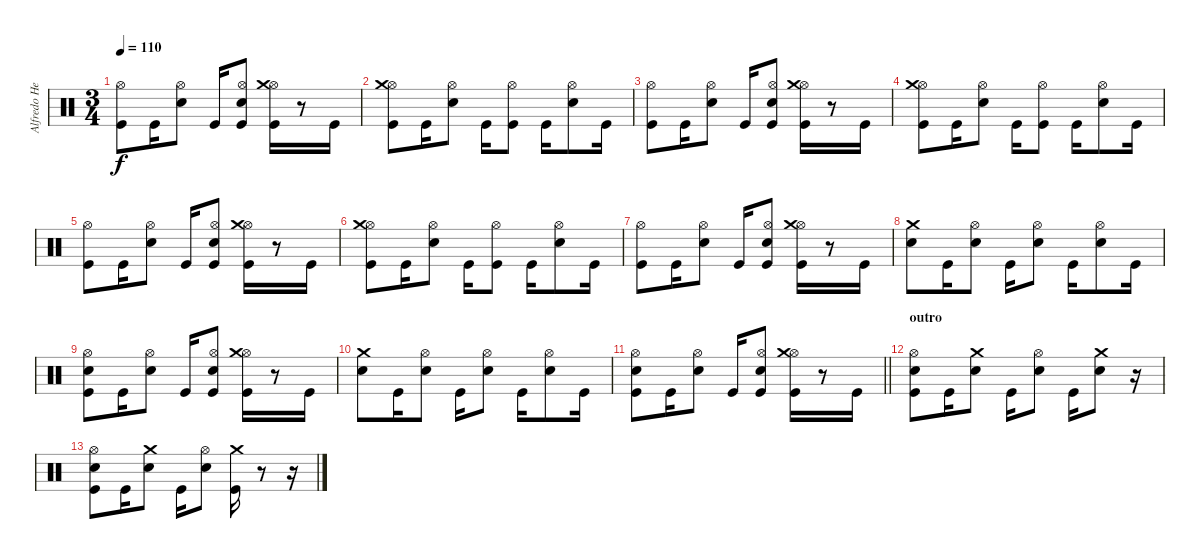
\track ("Alfredo Hernandez" "Alfredo He") {instrument percussion}
\staff {score}
\articulation defaults
\ts (3 4)
\tempo 110
\clef neutral
\ks c
("Kick (hit)" "Hi-Hat (open)").8{dy f} "Kick (hit)".16 ("Electric Snare (hit)" "Hi-Hat (open)").8 "Kick (hit)".16 ("Kick (hit)" "Electric Snare (hit)" "Hi-Hat (open)").8 ("Kick (hit)" "Hi-Hat (open)" "Crash medium (hit)").16 r.8 "Kick (hit)".16 |
("Kick (hit)" "Hi-Hat (open)" "Crash medium (hit)").8 "Kick (hit)".16 ("Electric Snare (hit)" "Hi-Hat (open)").8 "Kick (hit)".16 ("Kick (hit)" "Hi-Hat (open)").8 "Kick (hit)".16 ("Electric Snare (hit)" "Hi-Hat (open)").8 "Kick (hit)".16 |
("Kick (hit)" "Hi-Hat (open)").8 "Kick (hit)".16 ("Electric Snare (hit)" "Hi-Hat (open)").8 "Kick (hit)".16 ("Kick (hit)" "Electric Snare (hit)" "Hi-Hat (open)").8 ("Kick (hit)" "Hi-Hat (open)" "Crash medium (hit)").16 r.8 "Kick (hit)".16 |
("Kick (hit)" "Hi-Hat (open)" "Crash medium (hit)").8 "Kick (hit)".16 ("Electric Snare (hit)" "Hi-Hat (open)").8 "Kick (hit)".16 ("Kick (hit)" "Hi-Hat (open)").8 "Kick (hit)".16 ("Electric Snare (hit)" "Hi-Hat (open)").8 "Kick (hit)".16 |
("Kick (hit)" "Hi-Hat (open)").8 "Kick (hit)".16 ("Electric Snare (hit)" "Hi-Hat (open)").8 "Kick (hit)".16 ("Kick (hit)" "Electric Snare (hit)" "Hi-Hat (open)").8 ("Kick (hit)" "Hi-Hat (open)" "Crash medium (hit)").16 r.8 "Kick (hit)".16 |
("Kick (hit)" "Hi-Hat (open)" "Crash medium (hit)").8 "Kick (hit)".16 ("Electric Snare (hit)" "Hi-Hat (open)").8 "Kick (hit)".16 ("Kick (hit)" "Hi-Hat (open)").8 "Kick (hit)".16 ("Electric Snare (hit)" "Hi-Hat (open)").8 "Kick (hit)".16 |
("Kick (hit)" "Hi-Hat (open)").8 "Kick (hit)".16 ("Electric Snare (hit)" "Hi-Hat (open)").8 "Kick (hit)".16 ("Kick (hit)" "Electric Snare (hit)" "Hi-Hat (open)").8 ("Kick (hit)" "Hi-Hat (open)" "Crash medium (hit)").16 r.8 "Kick (hit)".16 |
("Electric Snare (hit)" "Crash medium (hit)").8 "Kick (hit)".16 ("Electric Snare (hit)" "Hi-Hat (open)").8 "Kick (hit)".16 ("Electric Snare (hit)" "Hi-Hat (open)").8 "Kick (hit)".16 ("Electric Snare (hit)" "Hi-Hat (open)").8 "Kick (hit)".16 |
("Kick (hit)" "Electric Snare (hit)" "Hi-Hat (open)").8 "Kick (hit)".16 ("Electric Snare (hit)" "Hi-Hat (open)").8 "Kick (hit)".16 ("Kick (hit)" "Electric Snare (hit)" "Hi-Hat (open)").8 ("Kick (hit)" "Hi-Hat (open)" "Crash medium (hit)").16 r.8 "Kick (hit)".16 |
("Electric Snare (hit)" "Crash medium (hit)").8 "Kick (hit)".16 ("Electric Snare (hit)" "Hi-Hat (open)").8 "Kick (hit)".16 ("Electric Snare (hit)" "Hi-Hat (open)").8 "Kick (hit)".16 ("Electric Snare (hit)" "Hi-Hat (open)").8 "Kick (hit)".16 |
\barLineRight lightlight
("Kick (hit)" "Electric Snare (hit)" "Hi-Hat (open)").8 "Kick (hit)".16 ("Electric Snare (hit)" "Hi-Hat (open)").8 "Kick (hit)".16 ("Kick (hit)" "Electric Snare (hit)" "Hi-Hat (open)").8 ("Kick (hit)" "Hi-Hat (open)" "Crash medium (hit)").16 r.8 "Kick (hit)".16 |
\section ("" "outro")
("Kick (hit)" "Electric Snare (hit)" "Hi-Hat (open)").8 "Kick (hit)".16 ("Electric Snare (hit)" "Crash medium (hit)").8 "Kick (hit)".16 ("Electric Snare (hit)" "Hi-Hat (open)").8 "Kick (hit)".16 ("Electric Snare (hit)" "Crash medium (hit)").8 r.16 |
("Kick (hit)" "Electric Snare (hit)" "Hi-Hat (open)").8 "Kick (hit)".16 ("Electric Snare (hit)" "Crash medium (hit)").8 "Kick (hit)".16 ("Electric Snare (hit)" "Hi-Hat (open)").8 ("Kick (hit)" "Crash medium (hit)").16 r.8 r.16
